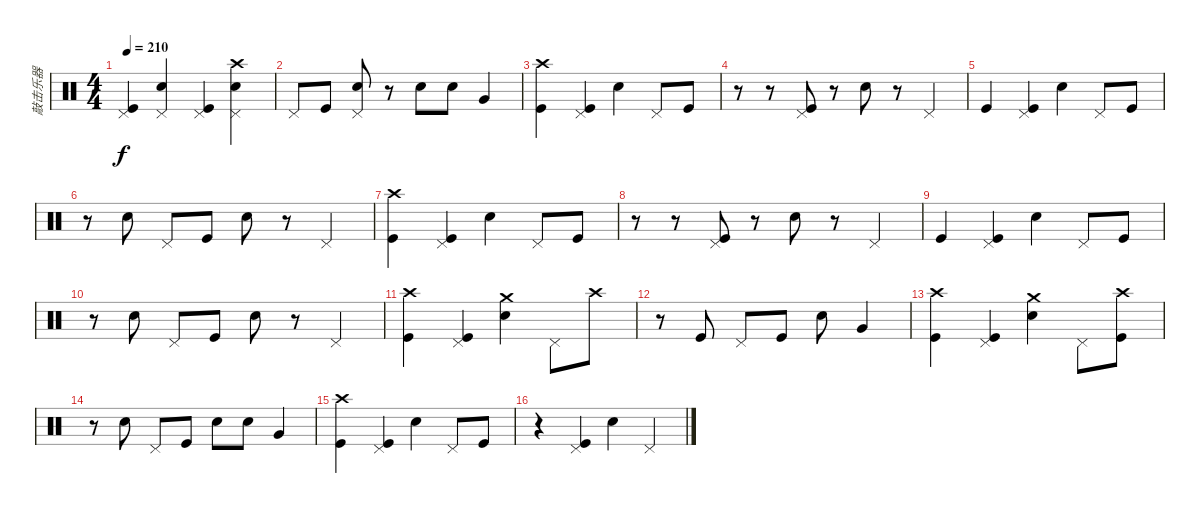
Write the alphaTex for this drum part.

\track ("敲击乐器" "敲击乐器") {instrument percussion}
\staff {score}
\articulation defaults
\ts (4 4)
\tempo 210
\clef neutral
\ks c
("Pedal Hi-Hat (hit)" "Kick (hit)").4{dy f} ("Pedal Hi-Hat (hit)" "Snare (hit) 2").4 ("Pedal Hi-Hat (hit)" "Kick (hit)").4 ("Crash high (hit)" "Pedal Hi-Hat (hit)" "Snare (hit) 2").4 |
"Pedal Hi-Hat (hit)".8 "Kick (hit)".8 ("Pedal Hi-Hat (hit)" "Snare (hit) 2").8 r.8 "Snare (hit) 2".8 "Snare (hit) 2".8 "Very Low Tom (hit)".4 |
("Crash high (hit)" "Kick (hit)").4 ("Kick (hit)" "Pedal Hi-Hat (hit)").4 "Snare (hit) 2".4 "Pedal Hi-Hat (hit)".8 "Kick (hit)".8 |
r.8 r.8 ("Kick (hit)" "Pedal Hi-Hat (hit)").8 r.8 "Snare (hit) 2".8 r.8 "Pedal Hi-Hat (hit)".4 |
"Kick (hit)".4 ("Kick (hit)" "Pedal Hi-Hat (hit)").4 "Snare (hit) 2".4 "Pedal Hi-Hat (hit)".8 "Kick (hit)".8 |
r.8 "Snare (hit) 2".8 "Pedal Hi-Hat (hit)".8 "Kick (hit)".8 "Snare (hit) 2".8 r.8 "Pedal Hi-Hat (hit)".4 |
("Crash high (hit)" "Kick (hit)").4 ("Kick (hit)" "Pedal Hi-Hat (hit)").4 "Snare (hit) 2".4 "Pedal Hi-Hat (hit)".8 "Kick (hit)".8 |
r.8 r.8 ("Kick (hit)" "Pedal Hi-Hat (hit)").8 r.8 "Snare (hit) 2".8 r.8 "Pedal Hi-Hat (hit)".4 |
"Kick (hit)".4 ("Kick (hit)" "Pedal Hi-Hat (hit)").4 "Snare (hit) 2".4 "Pedal Hi-Hat (hit)".8 "Kick (hit)".8 |
r.8 "Snare (hit) 2".8 "Pedal Hi-Hat (hit)".8 "Kick (hit)".8 "Snare (hit) 2".8 r.8 "Pedal Hi-Hat (hit)".4 |
("Crash high (hit)" "Kick (hit)").4 ("Kick (hit)" "Pedal Hi-Hat (hit)").4 ("Snare (hit) 2" "Crash medium (hit)").4 "Pedal Hi-Hat (hit)".8 "Crash high (hit)".8 |
r.8 "Kick (hit)".8 "Pedal Hi-Hat (hit)".8 "Kick (hit)".8 "Snare (hit) 2".8 "Very Low Tom (hit)".4 |
("Crash high (hit)" "Kick (hit)").4 ("Kick (hit)" "Pedal Hi-Hat (hit)").4 ("Snare (hit) 2" "Crash medium (hit)").4 "Pedal Hi-Hat (hit)".8 ("Kick (hit)" "Crash high (hit)").8 |
r.8 "Snare (hit) 2".8 "Pedal Hi-Hat (hit)".8 "Kick (hit)".8 "Snare (hit) 2".8 "Snare (hit) 2".8 "Very Low Tom (hit)".4 |
("Kick (hit)" "Crash high (hit)").4 ("Kick (hit)" "Pedal Hi-Hat (hit)").4 "Snare (hit) 2".4 "Pedal Hi-Hat (hit)".8 "Kick (hit)".8 |
r.4 ("Kick (hit)" "Pedal Hi-Hat (hit)").4 "Snare (hit) 2".4 "Pedal Hi-Hat (hit)".4
